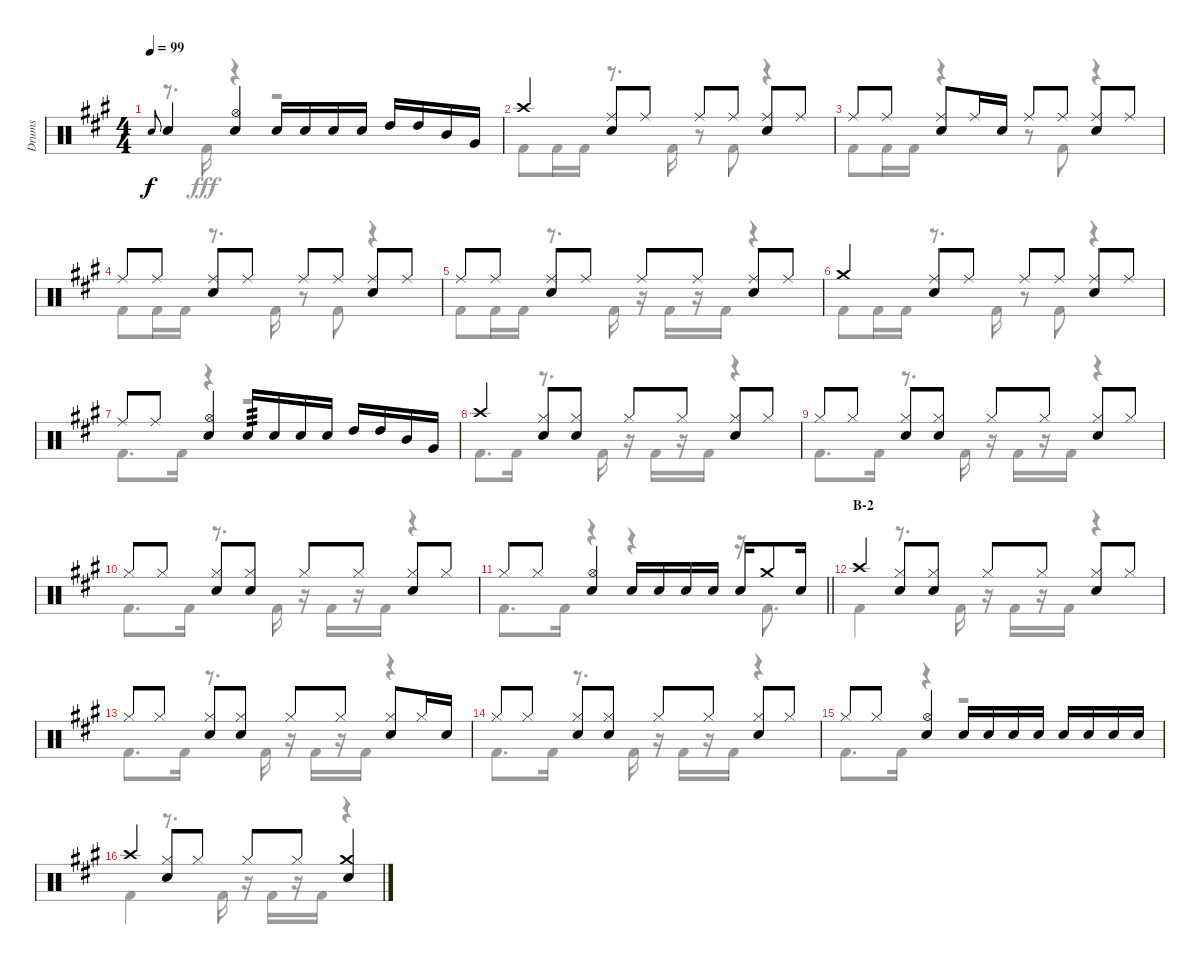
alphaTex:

\track ("Drums" "Drums") {instrument percussion}
\staff {score}
\articulation defaults
\voice
\ts (4 4)
\tempo 99
\clef neutral
\ks a "Snare (hit) 2".8{gr onbeat dy f} "Snare (hit) 2".4
("Hi-Hat (open)" "Snare (hit) 2").4 "Snare (hit) 2".16 "Snare (hit) 2".16 "Snare (hit) 2".16 "Snare (hit) 2".16 "High Tom (hit)".16 "High Tom (hit)".16 "Mid Tom (hit)".16 "Very Low Tom (hit)".16 |
"Crash high (hit)".4 ("Ride (middle)" "Snare (hit) 2").8 "Ride (middle)".8 "Ride (middle)".8 "Ride (middle)".8 ("Ride (middle)" "Snare (hit) 2").8 "Ride (middle)".8 |
"Ride (middle)".8 "Ride (middle)".8 ("Ride (middle)" "Snare (hit) 2").8 "Ride (middle)".16 "Snare (hit) 2".16 "Ride (middle)".8 "Ride (middle)".8 ("Ride (middle)" "Snare (hit) 2").8 "Ride (middle)".8 |
"Ride (middle)".8 "Ride (middle)".8 ("Ride (middle)" "Snare (hit) 2").8 "Ride (middle)".8 "Ride (middle)".8 "Ride (middle)".8 ("Ride (middle)" "Snare (hit) 2").8 "Ride (middle)".8 |
"Ride (middle)".8 "Ride (middle)".8 ("Ride (middle)" "Snare (hit) 2").8 "Ride (middle)".8 "Ride (middle)".8 "Ride (middle)".8 ("Ride (middle)" "Snare (hit) 2").8 "Ride (middle)".8 |
"Crash medium (hit)".4 ("Ride (middle)" "Snare (hit) 2").8 "Ride (middle)".8 "Ride (middle)".8 "Ride (middle)".8 ("Ride (middle)" "Snare (hit) 2").8 "Ride (middle)".8 |
"Ride (middle)".8 "Ride (middle)".8 ("Hi-Hat (open)" "Snare (hit) 2").4 "Snare (hit) 2".16{tp 3} "Snare (hit) 2".16 "Snare (hit) 2".16 "Snare (hit) 2".16 "High Tom (hit)".16 "High Tom (hit)".16 "Mid Tom (hit)".16 "Very Low Tom (hit)".16 |
"Crash high (hit)".4 ("Hi-Hat (closed)" "Snare (hit) 2").8 ("Hi-Hat (closed)" "Snare (hit) 2").8 "Hi-Hat (closed)".8 "Hi-Hat (closed)".8 ("Hi-Hat (closed)" "Snare (hit) 2").8 "Hi-Hat (closed)".8 |
"Hi-Hat (closed)".8 "Hi-Hat (closed)".8 ("Hi-Hat (closed)" "Snare (hit) 2").8 ("Hi-Hat (closed)" "Snare (hit) 2").8 "Hi-Hat (closed)".8 "Hi-Hat (closed)".8 ("Hi-Hat (closed)" "Snare (hit) 2").8 "Hi-Hat (closed)".8 |
"Hi-Hat (closed)".8 "Hi-Hat (closed)".8 ("Hi-Hat (closed)" "Snare (hit) 2").8 ("Hi-Hat (closed)" "Snare (hit) 2").8 "Hi-Hat (closed)".8 "Hi-Hat (closed)".8 ("Hi-Hat (closed)" "Snare (hit) 2").8 "Hi-Hat (closed)".8 |
\barLineRight lightlight "Hi-Hat (closed)".8 "Hi-Hat (closed)".8
("Hi-Hat (open)" "Snare (hit) 2").4 "Snare (hit) 2".16 "Snare (hit) 2".16 "Snare (hit) 2".16 "Snare (hit) 2".16 "Snare (hit) 2".16 "Crash medium (hit)".8 "Snare (hit) 2".16 |
\section ("" "B-2")
"Crash high (hit)".4 ("Hi-Hat (closed)" "Snare (hit) 2").8 ("Hi-Hat (closed)" "Snare (hit) 2").8 "Hi-Hat (closed)".8 "Hi-Hat (closed)".8 ("Hi-Hat (closed)" "Snare (hit) 2").8 "Hi-Hat (closed)".8 |
"Hi-Hat (closed)".8 "Hi-Hat (closed)".8 ("Hi-Hat (closed)" "Snare (hit) 2").8 ("Hi-Hat (closed)" "Snare (hit) 2").8 "Hi-Hat (closed)".8 "Hi-Hat (closed)".8 ("Hi-Hat (closed)" "Snare (hit) 2").8 "Hi-Hat (closed)".16 "Snare (hit) 2".16 |
"Hi-Hat (closed)".8 "Hi-Hat (closed)".8 ("Hi-Hat (closed)" "Snare (hit) 2").8 ("Hi-Hat (closed)" "Snare (hit) 2").8 "Hi-Hat (closed)".8 "Hi-Hat (closed)".8 ("Hi-Hat (closed)" "Snare (hit) 2").8 "Hi-Hat (closed)".8 |
"Hi-Hat (closed)".8 "Hi-Hat (closed)".8 ("Hi-Hat (open)" "Snare (hit) 2").4 "Snare (hit) 2".16 "Snare (hit) 2".16 "Snare (hit) 2".16 "Snare (hit) 2".16 "Snare (hit) 2".16 "Snare (hit) 2".16 "Snare (hit) 2".16 "Snare (hit) 2".16 |
"Crash high (hit)".4 ("Hi-Hat (closed)" "Snare (hit) 2").8 "Hi-Hat (closed)".8 "Hi-Hat (closed)".8 "Hi-Hat (closed)".8 ("Crash medium (hit)" "Snare (hit) 2").4
\voice
\clef neutral
\ottava regular
\simile none
\ks a
r.8{d dy fff} "Kick (hit) 2".16 r.4 r.2 |
"Kick (hit) 2".8 "Kick (hit) 2".16 "Kick (hit) 2".16 r.8{d} "Kick (hit) 2".16 r.8 "Kick (hit) 2".8 r.4 |
"Kick (hit) 2".8 "Kick (hit) 2".16 "Kick (hit) 2".16 r.4 r.8 "Kick (hit) 2".8 r.4 |
"Kick (hit) 2".8 "Kick (hit) 2".16 "Kick (hit) 2".16 r.8{d} "Kick (hit) 2".16 r.8 "Kick (hit) 2".8 r.4 |
"Kick (hit) 2".8 "Kick (hit) 2".16 "Kick (hit) 2".16 r.8{d} "Kick (hit) 2".16 r.16 "Kick (hit) 2".16 r.16 "Kick (hit) 2".16 r.4 |
"Kick (hit) 2".8 "Kick (hit) 2".16 "Kick (hit) 2".16 r.8{d} "Kick (hit) 2".16 r.8 "Kick (hit) 2".8 r.4 |
"Kick (hit) 2".8{d} "Kick (hit) 2".16 r.4 r.2 |
"Kick (hit) 2".8{d} "Kick (hit) 2".16 r.8{d} "Kick (hit) 2".16 r.16 "Kick (hit) 2".16 r.16 "Kick (hit) 2".16 r.4 |
"Kick (hit) 2".8{d} "Kick (hit) 2".16 r.8{d} "Kick (hit) 2".16 r.16 "Kick (hit) 2".16 r.16 "Kick (hit) 2".16 r.4 |
"Kick (hit) 2".8{d} "Kick (hit) 2".16 r.8{d} "Kick (hit) 2".16 r.16 "Kick (hit) 2".16 r.16 "Kick (hit) 2".16 r.4 |
\barLineRight lightlight "Kick (hit) 2".8{d} "Kick (hit) 2".16
r.4 r.4 r.16 "Kick (hit) 2".8{d} |
"Kick (hit) 2".4 r.8{d} "Kick (hit) 2".16 r.16 "Kick (hit) 2".16 r.16 "Kick (hit) 2".16 r.4 |
"Kick (hit) 2".8{d} "Kick (hit) 2".16 r.8{d} "Kick (hit) 2".16 r.16 "Kick (hit) 2".16 r.16 "Kick (hit) 2".16 r.4 |
"Kick (hit) 2".8{d} "Kick (hit) 2".16 r.8{d} "Kick (hit) 2".16 r.16 "Kick (hit) 2".16 r.16 "Kick (hit) 2".16 r.4 |
"Kick (hit) 2".8{d} "Kick (hit) 2".16 r.4 r.2 |
"Kick (hit) 2".4 r.8{d} "Kick (hit) 2".16 r.16 "Kick (hit) 2".16 r.16 "Kick (hit) 2".16 r.4
